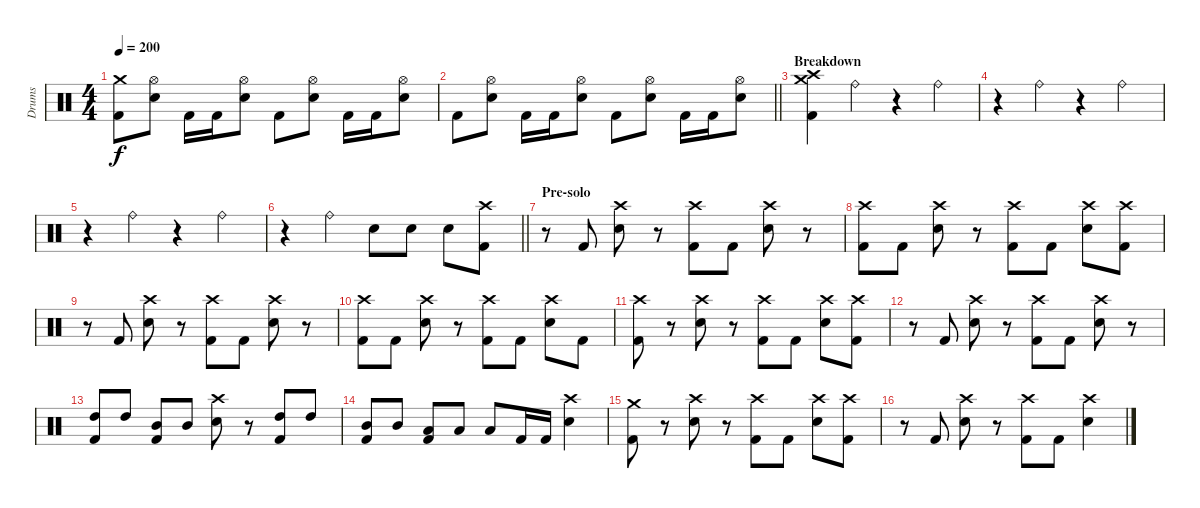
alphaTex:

\track ("Drums" "Drums") {instrument percussion}
\staff {score}
\articulation defaults
\ts (4 4)
\tempo 200
\clef neutral
\ks c
("Crash medium (hit)" "Kick (hit) 2").8{dy f} ("Hi-Hat (open)" "Electric Snare (hit)").8 "Kick (hit) 2".16 "Kick (hit) 2".16 ("Hi-Hat (open)" "Electric Snare (hit)").8 "Kick (hit) 2".8 ("Hi-Hat (open)" "Electric Snare (hit)").8 "Kick (hit) 2".16 "Kick (hit) 2".16 ("Hi-Hat (open)" "Electric Snare (hit)").8 |
\barLineRight lightlight "Kick (hit) 2".8
("Hi-Hat (open)" "Electric Snare (hit)").8 "Kick (hit) 2".16 "Kick (hit) 2".16 ("Hi-Hat (open)" "Electric Snare (hit)").8 "Kick (hit) 2".8 ("Hi-Hat (open)" "Electric Snare (hit)").8 "Kick (hit) 2".16 "Kick (hit) 2".16 ("Hi-Hat (open)" "Electric Snare (hit)").8 |
\section ("" "Breakdown")
("Crash medium (hit)" "Crash high (hit)" "Kick (hit) 2").4 "Ride (bell)".4 r.4 "Ride (bell)".4 |
r.4 "Ride (bell)".4 r.4 "Ride (bell)".4 |
r.4 "Ride (bell)".4 r.4 "Ride (bell)".4 |
\barLineRight lightlight
r.4 "Ride (bell)".4 "Electric Snare (hit)".8 "Electric Snare (hit)".8 "Electric Snare (hit)".8 ("Crash high (hit)" "Kick (hit) 2").8 |
\section ("" "Pre-solo")
r.8 "Kick (hit) 2".8 ("Crash high (hit)" "Electric Snare (hit)").8 r.8 ("Crash high (hit)" "Kick (hit) 2").8 "Kick (hit) 2".8 ("Crash high (hit)" "Electric Snare (hit)").8 r.8 |
("Crash high (hit)" "Kick (hit) 2").8 "Kick (hit) 2".8 ("Crash high (hit)" "Electric Snare (hit)").8 r.8 ("Crash high (hit)" "Kick (hit) 2").8 "Kick (hit) 2".8 ("Crash high (hit)" "Electric Snare (hit)").8 ("Crash high (hit)" "Kick (hit) 2").8 |
r.8 "Kick (hit) 2".8 ("Crash high (hit)" "Electric Snare (hit)").8 r.8 ("Crash high (hit)" "Kick (hit) 2").8 "Kick (hit) 2".8 ("Crash high (hit)" "Electric Snare (hit)").8 r.8 |
("Crash high (hit)" "Kick (hit) 2").8 "Kick (hit) 2".8 ("Crash high (hit)" "Electric Snare (hit)").8 r.8 ("Crash high (hit)" "Kick (hit) 2").8 "Kick (hit) 2".8 ("Crash high (hit)" "Electric Snare (hit)").8 "Kick (hit) 2".8 |
("Crash high (hit)" "Kick (hit) 2").8 r.8 ("Crash high (hit)" "Electric Snare (hit)").8 r.8 ("Crash high (hit)" "Kick (hit) 2").8 "Kick (hit) 2".8 ("Crash high (hit)" "Electric Snare (hit)").8 ("Crash high (hit)" "Kick (hit) 2").8 |
r.8 "Kick (hit) 2".8 ("Crash high (hit)" "Electric Snare (hit)").8 r.8 ("Crash high (hit)" "Kick (hit) 2").8 "Kick (hit) 2".8 ("Crash high (hit)" "Electric Snare (hit)").8 r.8 |
("High Tom (hit)" "Kick (hit) 2").8 "High Tom (hit)".8 ("Mid Tom (hit)" "Kick (hit) 2").8 "Mid Tom (hit)".8 ("Crash high (hit)" "Electric Snare (hit)").8 r.8 ("High Tom (hit)" "Kick (hit) 2").8 "High Tom (hit)".8 |
("Mid Tom (hit)" "Kick (hit) 2").8 "Mid Tom (hit)".8 ("Low Floor Tom (hit)" "Kick (hit) 2").8 "Low Floor Tom (hit)".8 "Low Floor Tom (hit)".8 "Kick (hit) 2".16 "Kick (hit) 2".16 ("Crash high (hit)" "Electric Snare (hit)").4 |
("Crash medium (hit)" "Kick (hit) 2").8 r.8 ("Crash high (hit)" "Electric Snare (hit)").8 r.8 ("Crash high (hit)" "Kick (hit) 2").8 "Kick (hit) 2".8 ("Crash high (hit)" "Electric Snare (hit)").8 ("Crash high (hit)" "Kick (hit) 2").8 |
r.8 "Kick (hit) 2".8 ("Crash high (hit)" "Electric Snare (hit)").8 r.8 ("Crash high (hit)" "Kick (hit) 2").8 "Kick (hit) 2".8 ("Crash high (hit)" "Electric Snare (hit)").4
